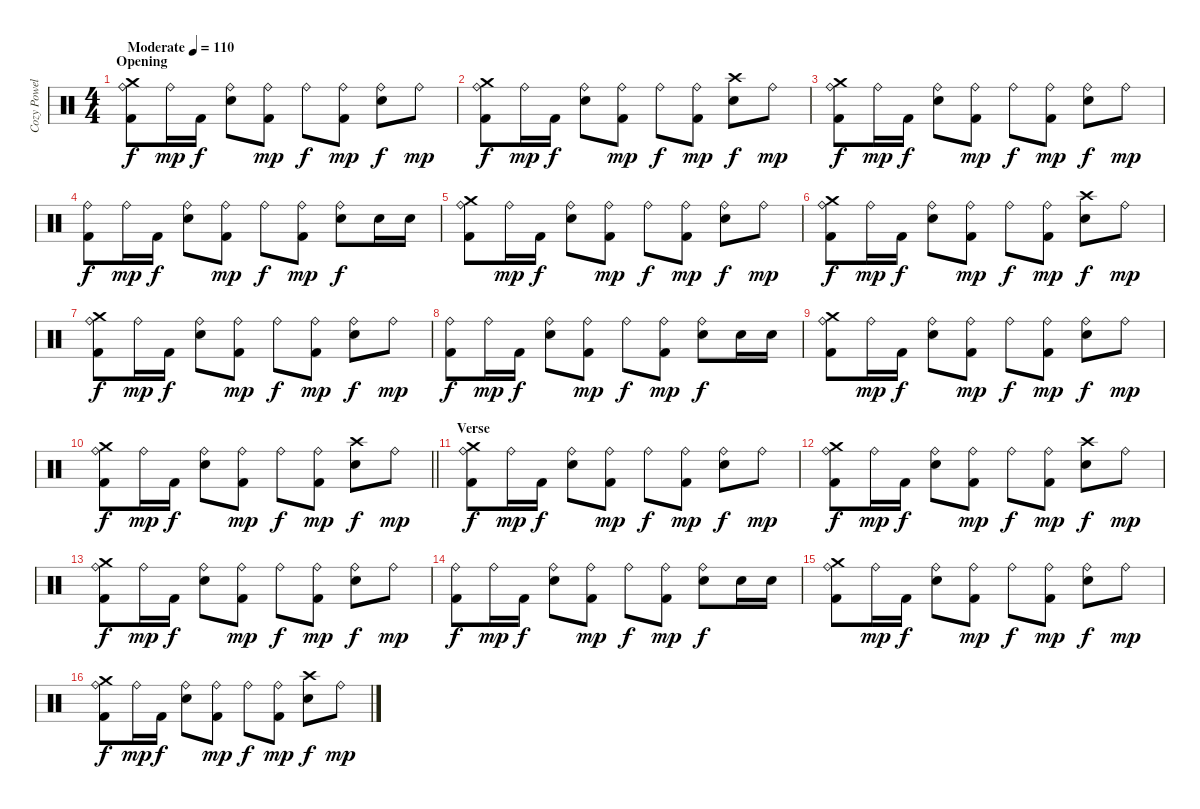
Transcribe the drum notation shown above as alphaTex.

\track ("Cozy Powell" "Cozy Powel") {instrument percussion}
\staff {score}
\articulation defaults
\ts (4 4)
\section ("" "Opening")
\tempo (110 "Moderate")
\clef neutral
\ks c
("Crash medium (hit)" "Ride (bell)" "Kick (hit) 2").8{dy f} "Ride (bell)".16{dy mp} "Kick (hit) 2".16{dy f} ("Ride (bell)" "Snare (hit) 2").8 ("Ride (bell)" "Kick (hit) 2").8{dy mp} "Ride (bell)".8{dy f} ("Ride (bell)" "Kick (hit) 2").8{dy mp} ("Ride (bell)" "Snare (hit) 2").8{dy f} "Ride (bell)".8{dy mp} |
("Crash medium (hit)" "Ride (bell)" "Kick (hit) 2").8{dy f} "Ride (bell)".16{dy mp} "Kick (hit) 2".16{dy f} ("Ride (bell)" "Snare (hit) 2").8 ("Ride (bell)" "Kick (hit) 2").8{dy mp} "Ride (bell)".8{dy f} ("Ride (bell)" "Kick (hit) 2").8{dy mp} ("Crash high (hit)" "Snare (hit) 2").8{dy f} "Ride (bell)".8{dy mp} |
("Crash medium (hit)" "Ride (bell)" "Kick (hit) 2").8{dy f} "Ride (bell)".16{dy mp} "Kick (hit) 2".16{dy f} ("Ride (bell)" "Snare (hit) 2").8 ("Ride (bell)" "Kick (hit) 2").8{dy mp} "Ride (bell)".8{dy f} ("Ride (bell)" "Kick (hit) 2").8{dy mp} ("Ride (bell)" "Snare (hit) 2").8{dy f} "Ride (bell)".8{dy mp} |
("Ride (bell)" "Kick (hit) 2").8{dy f} "Ride (bell)".16{dy mp} "Kick (hit) 2".16{dy f} ("Ride (bell)" "Snare (hit) 2").8 ("Ride (bell)" "Kick (hit) 2").8{dy mp} "Ride (bell)".8{dy f} ("Ride (bell)" "Kick (hit) 2").8{dy mp} ("Ride (bell)" "Snare (hit) 2").8{dy f} "Snare (hit) 2".16 "Snare (hit) 2".16 |
("Crash medium (hit)" "Ride (bell)" "Kick (hit) 2").8 "Ride (bell)".16{dy mp} "Kick (hit) 2".16{dy f} ("Ride (bell)" "Snare (hit) 2").8 ("Ride (bell)" "Kick (hit) 2").8{dy mp} "Ride (bell)".8{dy f} ("Ride (bell)" "Kick (hit) 2").8{dy mp} ("Ride (bell)" "Snare (hit) 2").8{dy f} "Ride (bell)".8{dy mp} |
("Crash medium (hit)" "Ride (bell)" "Kick (hit) 2").8{dy f} "Ride (bell)".16{dy mp} "Kick (hit) 2".16{dy f} ("Ride (bell)" "Snare (hit) 2").8 ("Ride (bell)" "Kick (hit) 2").8{dy mp} "Ride (bell)".8{dy f} ("Ride (bell)" "Kick (hit) 2").8{dy mp} ("Crash high (hit)" "Snare (hit) 2").8{dy f} "Ride (bell)".8{dy mp} |
("Crash medium (hit)" "Ride (bell)" "Kick (hit) 2").8{dy f} "Ride (bell)".16{dy mp} "Kick (hit) 2".16{dy f} ("Ride (bell)" "Snare (hit) 2").8 ("Ride (bell)" "Kick (hit) 2").8{dy mp} "Ride (bell)".8{dy f} ("Ride (bell)" "Kick (hit) 2").8{dy mp} ("Ride (bell)" "Snare (hit) 2").8{dy f} "Ride (bell)".8{dy mp} |
("Ride (bell)" "Kick (hit) 2").8{dy f} "Ride (bell)".16{dy mp} "Kick (hit) 2".16{dy f} ("Ride (bell)" "Snare (hit) 2").8 ("Ride (bell)" "Kick (hit) 2").8{dy mp} "Ride (bell)".8{dy f} ("Ride (bell)" "Kick (hit) 2").8{dy mp} ("Ride (bell)" "Snare (hit) 2").8{dy f} "Snare (hit) 2".16 "Snare (hit) 2".16 |
("Crash medium (hit)" "Ride (bell)" "Kick (hit) 2").8 "Ride (bell)".16{dy mp} "Kick (hit) 2".16{dy f} ("Ride (bell)" "Snare (hit) 2").8 ("Ride (bell)" "Kick (hit) 2").8{dy mp} "Ride (bell)".8{dy f} ("Ride (bell)" "Kick (hit) 2").8{dy mp} ("Ride (bell)" "Snare (hit) 2").8{dy f} "Ride (bell)".8{dy mp} |
\barLineRight lightlight
("Crash medium (hit)" "Ride (bell)" "Kick (hit) 2").8{dy f} "Ride (bell)".16{dy mp} "Kick (hit) 2".16{dy f} ("Ride (bell)" "Snare (hit) 2").8 ("Ride (bell)" "Kick (hit) 2").8{dy mp} "Ride (bell)".8{dy f} ("Ride (bell)" "Kick (hit) 2").8{dy mp} ("Crash high (hit)" "Snare (hit) 2").8{dy f} "Ride (bell)".8{dy mp} |
\section ("" "Verse")
("Crash medium (hit)" "Ride (bell)" "Kick (hit) 2").8{dy f} "Ride (bell)".16{dy mp} "Kick (hit) 2".16{dy f} ("Ride (bell)" "Snare (hit) 2").8 ("Ride (bell)" "Kick (hit) 2").8{dy mp} "Ride (bell)".8{dy f} ("Ride (bell)" "Kick (hit) 2").8{dy mp} ("Ride (bell)" "Snare (hit) 2").8{dy f} "Ride (bell)".8{dy mp} |
("Crash medium (hit)" "Ride (bell)" "Kick (hit) 2").8{dy f} "Ride (bell)".16{dy mp} "Kick (hit) 2".16{dy f} ("Ride (bell)" "Snare (hit) 2").8 ("Ride (bell)" "Kick (hit) 2").8{dy mp} "Ride (bell)".8{dy f} ("Ride (bell)" "Kick (hit) 2").8{dy mp} ("Crash high (hit)" "Snare (hit) 2").8{dy f} "Ride (bell)".8{dy mp} |
("Crash medium (hit)" "Ride (bell)" "Kick (hit) 2").8{dy f} "Ride (bell)".16{dy mp} "Kick (hit) 2".16{dy f} ("Ride (bell)" "Snare (hit) 2").8 ("Ride (bell)" "Kick (hit) 2").8{dy mp} "Ride (bell)".8{dy f} ("Ride (bell)" "Kick (hit) 2").8{dy mp} ("Ride (bell)" "Snare (hit) 2").8{dy f} "Ride (bell)".8{dy mp} |
("Ride (bell)" "Kick (hit) 2").8{dy f} "Ride (bell)".16{dy mp} "Kick (hit) 2".16{dy f} ("Ride (bell)" "Snare (hit) 2").8 ("Ride (bell)" "Kick (hit) 2").8{dy mp} "Ride (bell)".8{dy f} ("Ride (bell)" "Kick (hit) 2").8{dy mp} ("Ride (bell)" "Snare (hit) 2").8{dy f} "Snare (hit) 2".16 "Snare (hit) 2".16 |
("Crash medium (hit)" "Ride (bell)" "Kick (hit) 2").8 "Ride (bell)".16{dy mp} "Kick (hit) 2".16{dy f} ("Ride (bell)" "Snare (hit) 2").8 ("Ride (bell)" "Kick (hit) 2").8{dy mp} "Ride (bell)".8{dy f} ("Ride (bell)" "Kick (hit) 2").8{dy mp} ("Ride (bell)" "Snare (hit) 2").8{dy f} "Ride (bell)".8{dy mp} |
("Crash medium (hit)" "Ride (bell)" "Kick (hit) 2").8{dy f} "Ride (bell)".16{dy mp} "Kick (hit) 2".16{dy f} ("Ride (bell)" "Snare (hit) 2").8 ("Ride (bell)" "Kick (hit) 2").8{dy mp} "Ride (bell)".8{dy f} ("Ride (bell)" "Kick (hit) 2").8{dy mp} ("Crash high (hit)" "Snare (hit) 2").8{dy f} "Ride (bell)".8{dy mp}
